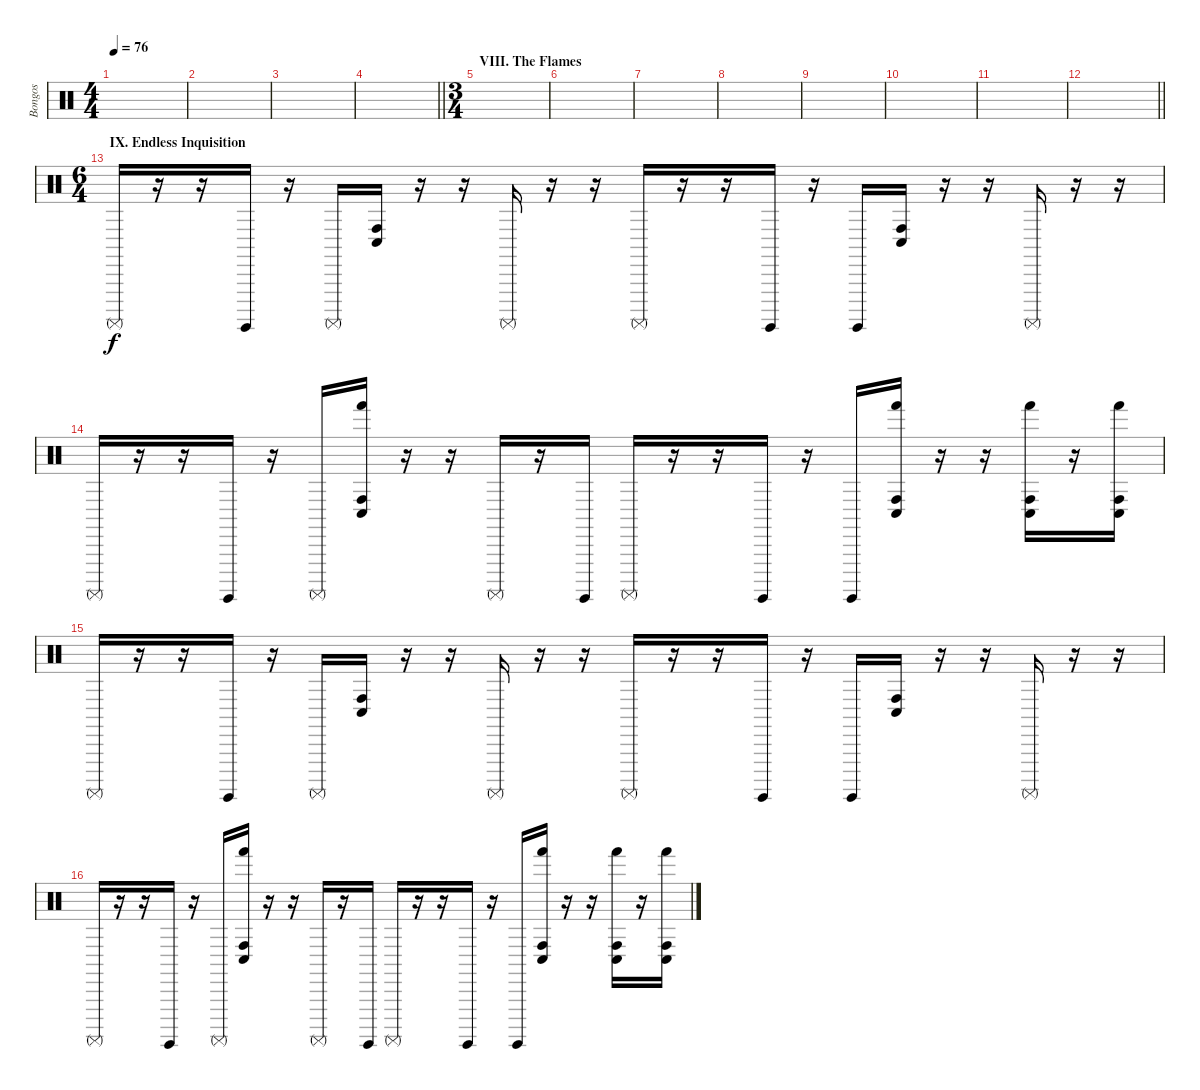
\track ("Bongos" "Bongos") {mute instrument percussion}
\staff {score}
\articulation defaults
\ts (4 4)
\tempo 76
\clef neutral
\ks c
|
|
|
\barLineRight lightlight
|
\ts (3 4)
\section ("" "VIII. The Flames")
|
|
|
|
|
|
|
\barLineRight lightlight
|
\ts (6 4)
\section ("" "IX. Endless Inquisition")
"Surdo (mute)".16{dy f} r.16 r.16 "Surdo (hit)".16 r.16 "Surdo (mute)".16 ("Conga high (hit)" "Conga low (hit)").16 r.16 r.16 "Surdo (mute)".16 r.16 r.16 "Surdo (mute)".16 r.16 r.16 "Surdo (hit)".16 r.16 "Surdo (hit)".16 ("Conga high (hit)" "Conga low (hit)").16 r.16 r.16 "Surdo (mute)".16 r.16 r.16 |
"Surdo (mute)".16 r.16 r.16 "Surdo (hit)".16 r.16 "Surdo (mute)".16 ("Hand (hit)" "Conga high (hit)" "Conga low (hit)").16 r.16 r.16 "Surdo (mute)".16 r.16 "Surdo (hit)".16 "Surdo (mute)".16 r.16 r.16 "Surdo (hit)".16 r.16 "Surdo (hit)".16 ("Hand (hit)" "Conga high (hit)" "Conga low (hit)").16 r.16 r.16 ("Hand (hit)" "Conga high (hit)" "Conga low (hit)").16 r.16 ("Hand (hit)" "Conga high (hit)" "Conga low (hit)").16 |
"Surdo (mute)".16 r.16 r.16 "Surdo (hit)".16 r.16 "Surdo (mute)".16 ("Conga high (hit)" "Conga low (hit)").16 r.16 r.16 "Surdo (mute)".16 r.16 r.16 "Surdo (mute)".16 r.16 r.16 "Surdo (hit)".16 r.16 "Surdo (hit)".16 ("Conga high (hit)" "Conga low (hit)").16 r.16 r.16 "Surdo (mute)".16 r.16 r.16 |
"Surdo (mute)".16 r.16 r.16 "Surdo (hit)".16 r.16 "Surdo (mute)".16 ("Hand (hit)" "Conga high (hit)" "Conga low (hit)").16 r.16 r.16 "Surdo (mute)".16 r.16 "Surdo (hit)".16 "Surdo (mute)".16 r.16 r.16 "Surdo (hit)".16 r.16 "Surdo (hit)".16 ("Hand (hit)" "Conga high (hit)" "Conga low (hit)").16 r.16 r.16 ("Hand (hit)" "Conga high (hit)" "Conga low (hit)").16 r.16 ("Hand (hit)" "Conga high (hit)" "Conga low (hit)").16
